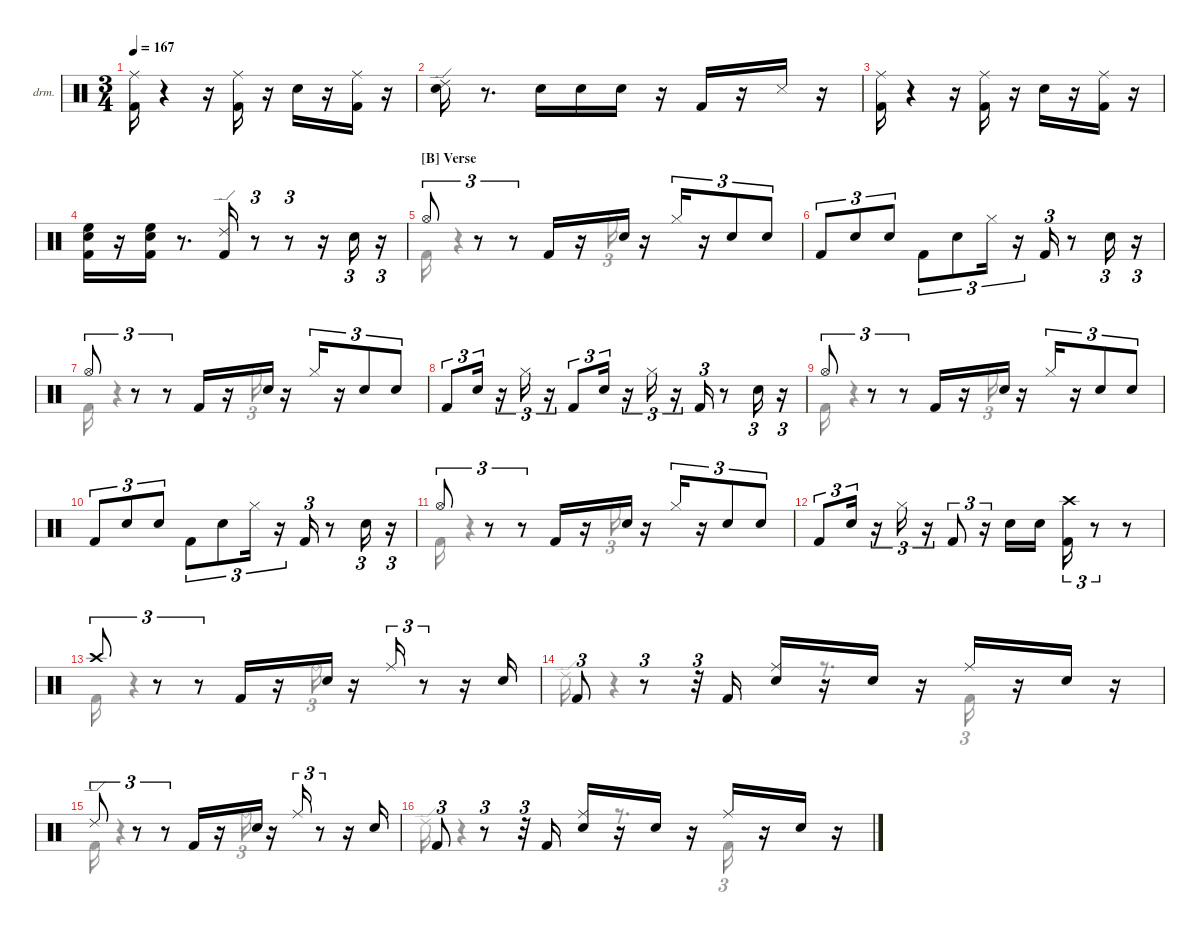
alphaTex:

\hideDynamics
\bracketExtendMode nobrackets
\firstSystemTrackNameOrientation horizontal
\otherSystemsTrackNameOrientation horizontal
\track ("Drums" "drm.") {instrument percussion}
\staff {score}
\articulation defaults
\voice
\ts (3 4)
\tempo 167
\clef neutral
\ks aminor
("Ride (middle)"{acc #} "Kick (hit) 2").16{dy fff} r.4 r.16 ("Ride (middle)"{acc #} "Kick (hit) 2").16{dy ff} r.16 "Snare (hit) 2".16{dy mp} r.16 ("Kick (hit) 2" "Ride (middle)"{acc #}).16{dy ff} r.16 |
("Snare (hit) 2" "Ride (edge) 2").16 r.8{d} "Snare (hit) 2".16{dy p} "Snare (hit) 2".16{dy ppp} "Snare (hit) 2".16{dy mf} r.16 "Kick (hit) 2".16{dy mp} r.16 "Snare (side stick) 3"{acc #}.16{dy fff} r.16 |
("Ride (middle)"{acc #} "Kick (hit) 2").16 r.4 r.16 ("Kick (hit) 2" "Ride (middle)"{acc #}).16{dy ff} r.16 "Snare (hit) 2".16{dy mp} r.16 ("Kick (hit) 2" "Ride (middle)"{acc #}).16{dy ff} r.16 |
("Snare (hit) 2" "Kick (hit) 2" "High Floor Tom (hit)").16 r.16 ("Kick (hit) 2" "Snare (hit) 2" "High Floor Tom (hit)").16 r.8{d} ("Kick (hit) 2" "Ride (edge) 2").16{dy fff} r.8{tu (3 2)} r.8{tu (3 2)} r.16 "Snare (hit) 2".16{tu (3 2) dy mf} r.16{tu (3 2)} |
\section ("B" "Verse")
"Hi-Hat (open)"{acc #}.8{tu (3 2) dy ff} r.8{tu (3 2)} r.8{tu (3 2)} "Kick (hit) 2".16 r.16 "Snare (hit) 2".16 r.16 "Hi-Hat (closed)"{acc #}.16{tu (3 2) dy fff} r.16{tu (3 2)} "Snare (hit) 2".8{tu (3 2) dy ff} "Snare (hit) 2".8{tu (3 2)} |
"Kick (hit) 2".8{tu (3 2)} "Snare (hit) 2".8{tu (3 2)} "Snare (hit) 2".8{tu (3 2)} "Kick (hit) 2".8{tu (3 2)} "Snare (hit) 2".8{tu (3 2)} "Hi-Hat (closed)"{acc #}.16{tu (3 2)} r.16{tu (3 2)} "Kick (hit) 2".16{tu (3 2)} r.8 "Snare (hit) 2".16{tu (3 2)} r.16{tu (3 2)} |
"Hi-Hat (open)"{acc #}.8{tu (3 2)} r.8{tu (3 2)} r.8{tu (3 2)} "Kick (hit) 2".16 r.16 "Snare (hit) 2".16 r.16 "Hi-Hat (closed)"{acc #}.16{tu (3 2) dy fff} r.16{tu (3 2)} "Snare (hit) 2".8{tu (3 2) dy ff} "Snare (hit) 2".8{tu (3 2)} |
"Kick (hit) 2".8{tu (3 2)} "Snare (hit) 2".16{tu (3 2) dy f} r.16{tu (3 2)} "Hi-Hat (closed)"{acc #}.16{tu (3 2) dy ff} r.16{tu (3 2)} "Kick (hit) 2".8{tu (3 2)} "Snare (hit) 2".16{tu (3 2) dy f} r.16{tu (3 2)} "Hi-Hat (closed)"{acc #}.16{tu (3 2) dy ff} r.16{tu (3 2)} "Kick (hit) 2".16{tu (3 2)} r.8 "Snare (hit) 2".16{tu (3 2)} r.16{tu (3 2)} |
"Hi-Hat (open)"{acc #}.8{tu (3 2)} r.8{tu (3 2)} r.8{tu (3 2)} "Kick (hit) 2".16 r.16 "Snare (hit) 2".16 r.16 "Hi-Hat (closed)"{acc #}.16{tu (3 2) dy fff} r.16{tu (3 2)} "Snare (hit) 2".8{tu (3 2) dy ff} "Snare (hit) 2".8{tu (3 2)} |
"Kick (hit) 2".8{tu (3 2)} "Snare (hit) 2".8{tu (3 2)} "Snare (hit) 2".8{tu (3 2)} "Kick (hit) 2".8{tu (3 2)} "Snare (hit) 2".8{tu (3 2)} "Hi-Hat (closed)"{acc #}.16{tu (3 2)} r.16{tu (3 2)} "Kick (hit) 2".16{tu (3 2)} r.8 "Snare (hit) 2".16{tu (3 2)} r.16{tu (3 2)} |
"Hi-Hat (open)"{acc #}.8{tu (3 2)} r.8{tu (3 2)} r.8{tu (3 2)} "Kick (hit) 2".16 r.16 "Snare (hit) 2".16 r.16 "Hi-Hat (closed)"{acc #}.16{tu (3 2) dy fff} r.16{tu (3 2)} "Snare (hit) 2".8{tu (3 2) dy ff} "Snare (hit) 2".8{tu (3 2)} |
"Kick (hit) 2".8{tu (3 2)} "Snare (hit) 2".16{tu (3 2) dy f} r.16{tu (3 2)} "Hi-Hat (closed)"{acc #}.16{tu (3 2) dy ff} r.16{tu (3 2)} "Kick (hit) 2".8{tu (3 2)} r.16{tu (3 2)} "Snare (hit) 2".16{dy f} "Snare (hit) 2".16{dy p} ("Kick (hit) 2" "Crash high (hit)"{acc #}).16{tu (3 2) dy ff} r.8{tu (3 2)} r.8 |
"Crash high (hit)"{acc #}.8{tu (3 2) dy fff} r.8{tu (3 2)} r.8{tu (3 2)} "Kick (hit) 2".16{dy ff} r.16 "Snare (hit) 2".16 r.16 "Ride (middle)"{acc #}.16{tu (3 2) dy fff} r.8{tu (3 2)} r.16 "Snare (hit) 2".16{dy ff} |
"Kick (hit) 2".8{tu (3 2)} r.8{tu (3 2)} r.32{tu (3 2)} "Kick (hit) 2".16 ("Snare (hit) 2" "Ride (middle)"{acc #}).16 r.16 "Snare (hit) 2".16{dy mp} r.16 "Ride (middle)"{acc #}.16{dy fff} r.16 "Snare (hit) 2".16{dy ff} r.16 |
"Ride (edge) 2".8{tu (3 2) dy fff} r.8{tu (3 2)} r.8{tu (3 2)} "Kick (hit) 2".16{dy ff} r.16 "Snare (hit) 2".16 r.16 "Ride (middle)"{acc #}.16{tu (3 2) dy fff} r.8{tu (3 2)} r.16 "Snare (hit) 2".16{dy ff} |
"Kick (hit) 2".8{tu (3 2)} r.8{tu (3 2)} r.32{tu (3 2)} "Kick (hit) 2".16 ("Snare (hit) 2" "Ride (middle)"{acc #}).16{dy mf} r.16 "Snare (hit) 2".16{dy mp} r.16 "Ride (middle)"{acc #}.16{dy fff} r.16 "Snare (hit) 2".16{dy ff} r.16
\voice
\clef neutral
\ottava regular
\simile none
\ks aminor
|
|
|
|
"Kick (hit) 2".16 r.4 r.16 "Hi-Hat (closed)"{acc #}.16{tu (3 2)} |
|
"Kick (hit) 2".16 r.4 r.16 "Hi-Hat (closed)"{acc #}.16{tu (3 2)} |
|
"Kick (hit) 2".16 r.4 r.16 "Hi-Hat (closed)"{acc #}.16{tu (3 2)} |
|
"Kick (hit) 2".16 r.4 r.16 "Hi-Hat (closed)"{acc #}.16{tu (3 2)} |
|
"Kick (hit) 2".16 r.4 r.16 "Ride (bell)".16{tu (3 2) dy mp} |
"Ride (edge) 2".16{dy ff} r.4 r.8{d} "Kick (hit) 2".16{tu (3 2)} |
"Kick (hit) 2".16 r.4 r.16 "Ride (bell)".16{tu (3 2) dy mp} |
"Ride (edge) 2".16{dy ff} r.4 r.8{d} "Kick (hit) 2".16{tu (3 2)}
